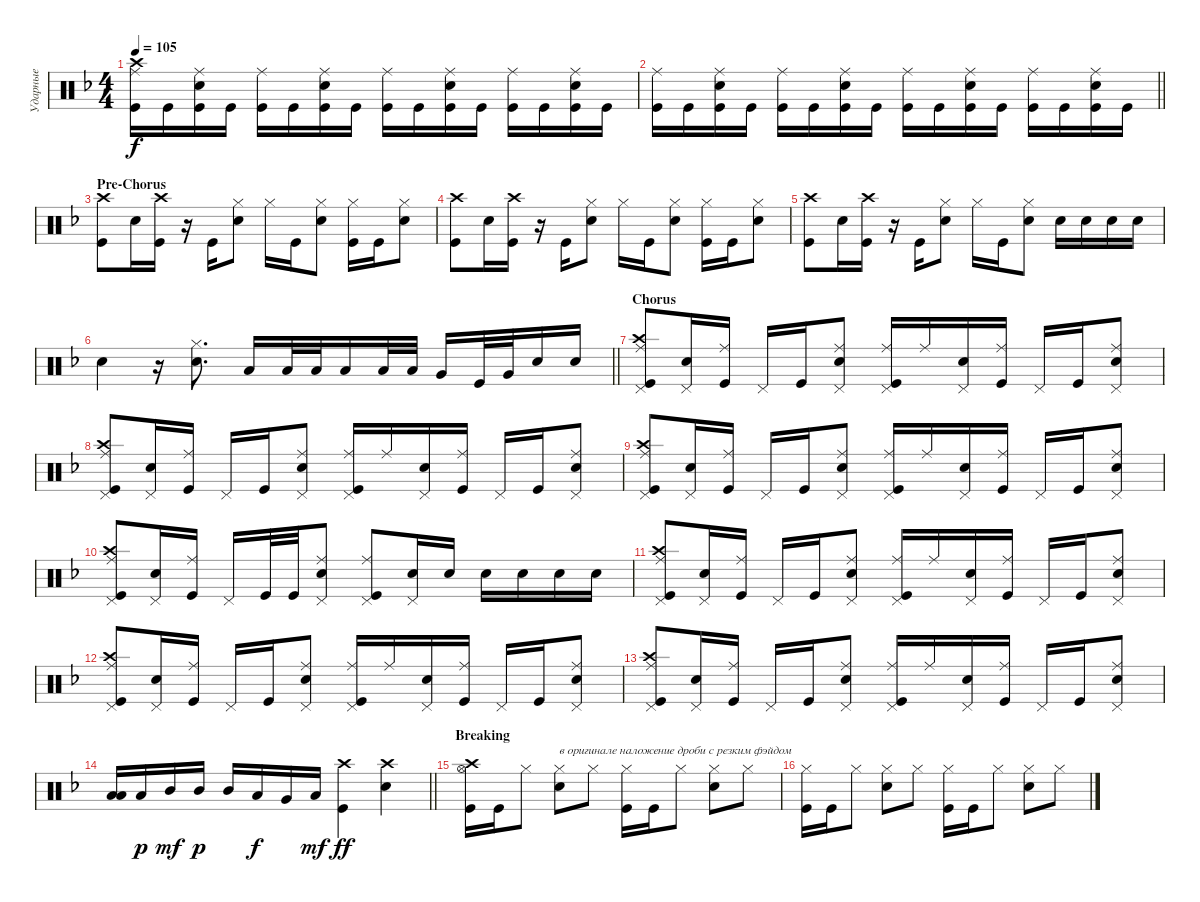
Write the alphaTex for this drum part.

\track ("Ударные" "Ударные") {instrument percussion}
\staff {score}
\articulation defaults
\ts (4 4)
\tempo 105
\clef neutral
\ks dminor
("Kick (hit)" "Crash high (hit)" "Ride (middle)").16{dy f} "Kick (hit)".16 ("Kick (hit)" "Snare (hit) 2" "Ride (middle)").16 "Kick (hit)".16 ("Kick (hit)" "Ride (middle)").16 "Kick (hit)".16 ("Kick (hit)" "Snare (hit) 2" "Ride (middle)").16 "Kick (hit)".16 ("Kick (hit)" "Ride (middle)").16 "Kick (hit)".16 ("Kick (hit)" "Snare (hit) 2" "Ride (middle)").16 "Kick (hit)".16 ("Kick (hit)" "Ride (middle)").16 "Kick (hit)".16 ("Kick (hit)" "Snare (hit) 2" "Ride (middle)").16 "Kick (hit)".16 |
\barLineRight lightlight
("Kick (hit)" "Ride (middle)").16 "Kick (hit)".16 ("Kick (hit)" "Snare (hit) 2" "Ride (middle)").16 "Kick (hit)".16 ("Kick (hit)" "Ride (middle)").16 "Kick (hit)".16 ("Kick (hit)" "Snare (hit) 2" "Ride (middle)").16 "Kick (hit)".16 ("Kick (hit)" "Ride (middle)").16 "Kick (hit)".16 ("Kick (hit)" "Snare (hit) 2" "Ride (middle)").16 "Kick (hit)".16 ("Kick (hit)" "Ride (middle)").16 "Kick (hit)".16 ("Kick (hit)" "Snare (hit) 2" "Ride (middle)").16 "Kick (hit)".16 |
\section ("" "Pre-Chorus")
("Kick (hit)" "Crash high (hit)").8 "Snare (hit) 2".16 ("Kick (hit)" "Crash high (hit)").16 r.16 "Kick (hit)".16 ("Snare (hit) 2" "Hi-Hat (closed)").8 "Hi-Hat (closed)".16 "Kick (hit)".16 ("Snare (hit) 2" "Hi-Hat (closed)").8 ("Kick (hit)" "Hi-Hat (closed)").16 "Kick (hit)".16 ("Snare (hit) 2" "Hi-Hat (closed)").8 |
("Kick (hit)" "Crash high (hit)").8 "Snare (hit) 2".16 ("Kick (hit)" "Crash high (hit)").16 r.16 "Kick (hit)".16 ("Snare (hit) 2" "Hi-Hat (closed)").8 "Hi-Hat (closed)".16 "Kick (hit)".16 ("Snare (hit) 2" "Hi-Hat (closed)").8 ("Kick (hit)" "Hi-Hat (closed)").16 "Kick (hit)".16 ("Snare (hit) 2" "Hi-Hat (closed)").8 |
("Kick (hit)" "Crash high (hit)").8 "Snare (hit) 2".16 ("Kick (hit)" "Crash high (hit)").16 r.16 "Kick (hit)".16 ("Snare (hit) 2" "Hi-Hat (closed)").8 "Hi-Hat (closed)".16 "Kick (hit)".16 ("Snare (hit) 2" "Hi-Hat (closed)").8 "Snare (hit) 2".16 "Snare (hit) 2".16 "Snare (hit) 2".16 "Snare (hit) 2".16 |
\barLineRight lightlight "Snare (hit) 2".4
r.16 ("Snare (hit) 2" "Hi-Hat (closed)").8{d} "Low Tom (hit)".16 "Low Floor Tom (hit)".32 "Low Floor Tom (hit)".32 "Low Floor Tom (hit)".16 "Low Floor Tom (hit)".32 "Low Floor Tom (hit)".32 "Very Low Tom (hit)".16 "Kick (hit)".32 "Very Low Tom (hit)".32 "Snare (hit) 2".16 "Snare (hit) 2".16 |
\section ("" "Chorus")
("Kick (hit)" "Crash high (hit)" "Ride (middle)" "Pedal Hi-Hat (hit)").8 ("Snare (hit) 2" "Pedal Hi-Hat (hit)").16 ("Ride (middle)" "Kick (hit)").16 "Pedal Hi-Hat (hit)".16 "Kick (hit)".16 ("Snare (hit) 2" "Ride (middle)" "Pedal Hi-Hat (hit)").8 ("Ride (middle)" "Kick (hit)" "Pedal Hi-Hat (hit)").16 "Ride (middle)".16 ("Snare (hit) 2" "Pedal Hi-Hat (hit)").16 ("Kick (hit)" "Ride (middle)").16 "Pedal Hi-Hat (hit)".16 "Kick (hit)".16 ("Snare (hit) 2" "Ride (middle)" "Pedal Hi-Hat (hit)").8 |
("Kick (hit)" "Crash high (hit)" "Ride (middle)" "Pedal Hi-Hat (hit)").8 ("Snare (hit) 2" "Pedal Hi-Hat (hit)").16 ("Ride (middle)" "Kick (hit)").16 "Pedal Hi-Hat (hit)".16 "Kick (hit)".16 ("Snare (hit) 2" "Ride (middle)" "Pedal Hi-Hat (hit)").8 ("Ride (middle)" "Kick (hit)" "Pedal Hi-Hat (hit)").16 "Ride (middle)".16 ("Snare (hit) 2" "Pedal Hi-Hat (hit)").16 ("Kick (hit)" "Ride (middle)").16 "Pedal Hi-Hat (hit)".16 "Kick (hit)".16 ("Snare (hit) 2" "Ride (middle)" "Pedal Hi-Hat (hit)").8 |
("Kick (hit)" "Crash high (hit)" "Ride (middle)" "Pedal Hi-Hat (hit)").8 ("Snare (hit) 2" "Pedal Hi-Hat (hit)").16 ("Ride (middle)" "Kick (hit)").16 "Pedal Hi-Hat (hit)".16 "Kick (hit)".16 ("Snare (hit) 2" "Ride (middle)" "Pedal Hi-Hat (hit)").8 ("Ride (middle)" "Kick (hit)" "Pedal Hi-Hat (hit)").16 "Ride (middle)".16 ("Snare (hit) 2" "Pedal Hi-Hat (hit)").16 ("Kick (hit)" "Ride (middle)").16 "Pedal Hi-Hat (hit)".16 "Kick (hit)".16 ("Snare (hit) 2" "Ride (middle)" "Pedal Hi-Hat (hit)").8 |
("Kick (hit)" "Crash high (hit)" "Ride (middle)" "Pedal Hi-Hat (hit)").8 ("Snare (hit) 2" "Pedal Hi-Hat (hit)").16 ("Ride (middle)" "Kick (hit)").16 "Pedal Hi-Hat (hit)".16 "Kick (hit)".32 "Kick (hit)".32 ("Snare (hit) 2" "Ride (middle)" "Pedal Hi-Hat (hit)").8 ("Ride (middle)" "Kick (hit)" "Pedal Hi-Hat (hit)").8 ("Snare (hit) 2" "Pedal Hi-Hat (hit)").16 "Snare (hit) 2".16 "Snare (hit) 2".16 "Snare (hit) 2".16 "Snare (hit) 2".16 "Snare (hit) 2".16 |
("Kick (hit)" "Crash high (hit)" "Ride (middle)" "Pedal Hi-Hat (hit)").8 ("Snare (hit) 2" "Pedal Hi-Hat (hit)").16 ("Ride (middle)" "Kick (hit)").16 "Pedal Hi-Hat (hit)".16 "Kick (hit)".16 ("Snare (hit) 2" "Ride (middle)" "Pedal Hi-Hat (hit)").8 ("Ride (middle)" "Kick (hit)" "Pedal Hi-Hat (hit)").16 "Ride (middle)".16 ("Snare (hit) 2" "Pedal Hi-Hat (hit)").16 ("Kick (hit)" "Ride (middle)").16 "Pedal Hi-Hat (hit)".16 "Kick (hit)".16 ("Snare (hit) 2" "Ride (middle)" "Pedal Hi-Hat (hit)").8 |
("Kick (hit)" "Crash high (hit)" "Ride (middle)" "Pedal Hi-Hat (hit)").8 ("Snare (hit) 2" "Pedal Hi-Hat (hit)").16 ("Ride (middle)" "Kick (hit)").16 "Pedal Hi-Hat (hit)".16 "Kick (hit)".16 ("Snare (hit) 2" "Ride (middle)" "Pedal Hi-Hat (hit)").8 ("Ride (middle)" "Kick (hit)" "Pedal Hi-Hat (hit)").16 "Ride (middle)".16 ("Snare (hit) 2" "Pedal Hi-Hat (hit)").16 ("Kick (hit)" "Ride (middle)").16 "Pedal Hi-Hat (hit)".16 "Kick (hit)".16 ("Snare (hit) 2" "Ride (middle)" "Pedal Hi-Hat (hit)").8 |
("Kick (hit)" "Crash high (hit)" "Ride (middle)" "Pedal Hi-Hat (hit)").8 ("Snare (hit) 2" "Pedal Hi-Hat (hit)").16 ("Ride (middle)" "Kick (hit)").16 "Pedal Hi-Hat (hit)".16 "Kick (hit)".16 ("Snare (hit) 2" "Ride (middle)" "Pedal Hi-Hat (hit)").8 ("Ride (middle)" "Kick (hit)" "Pedal Hi-Hat (hit)").16 "Ride (middle)".16 ("Snare (hit) 2" "Pedal Hi-Hat (hit)").16 ("Kick (hit)" "Ride (middle)").16 "Pedal Hi-Hat (hit)".16 "Kick (hit)".16 ("Snare (hit) 2" "Ride (middle)" "Pedal Hi-Hat (hit)").8 |
\barLineRight lightlight
("Low Tom (hit)" "Low Tom (hit)").16{bd 240} "Low Tom (hit)".16{dy p} "Mid Tom (hit)".16{dy mf} "Mid Tom (hit)".16{dy p} "Mid Tom (hit)".16 "Low Tom (hit)".16{dy f} "Very Low Tom (hit)".16 "Low Floor Tom (hit)".16{dy mf} ("Kick (hit)" "Crash high (hit)").4{dy ff} ("Snare (hit) 2" "Crash high (hit)").4 |
\section ("" "Breaking")
("Kick (hit)" "Hi-Hat (open)" "Crash high (hit)").16 "Kick (hit)".16 "Hi-Hat (closed)".8 ("Snare (hit) 2" "Hi-Hat (closed)").8{txt "в оригинале наложение дроби с резким фэйдом"} "Hi-Hat (closed)".8 ("Kick (hit)" "Hi-Hat (closed)").16 "Kick (hit)".16 "Hi-Hat (closed)".8 ("Hi-Hat (closed)" "Snare (hit) 2").8 "Hi-Hat (closed)".8 |
("Kick (hit)" "Hi-Hat (closed)").16 "Kick (hit)".16 "Hi-Hat (closed)".8 ("Hi-Hat (closed)" "Snare (hit) 2").8 "Hi-Hat (closed)".8 ("Hi-Hat (closed)" "Kick (hit)").16 "Kick (hit)".16 "Hi-Hat (closed)".8 ("Hi-Hat (closed)" "Snare (hit) 2").8 "Hi-Hat (closed)".8
